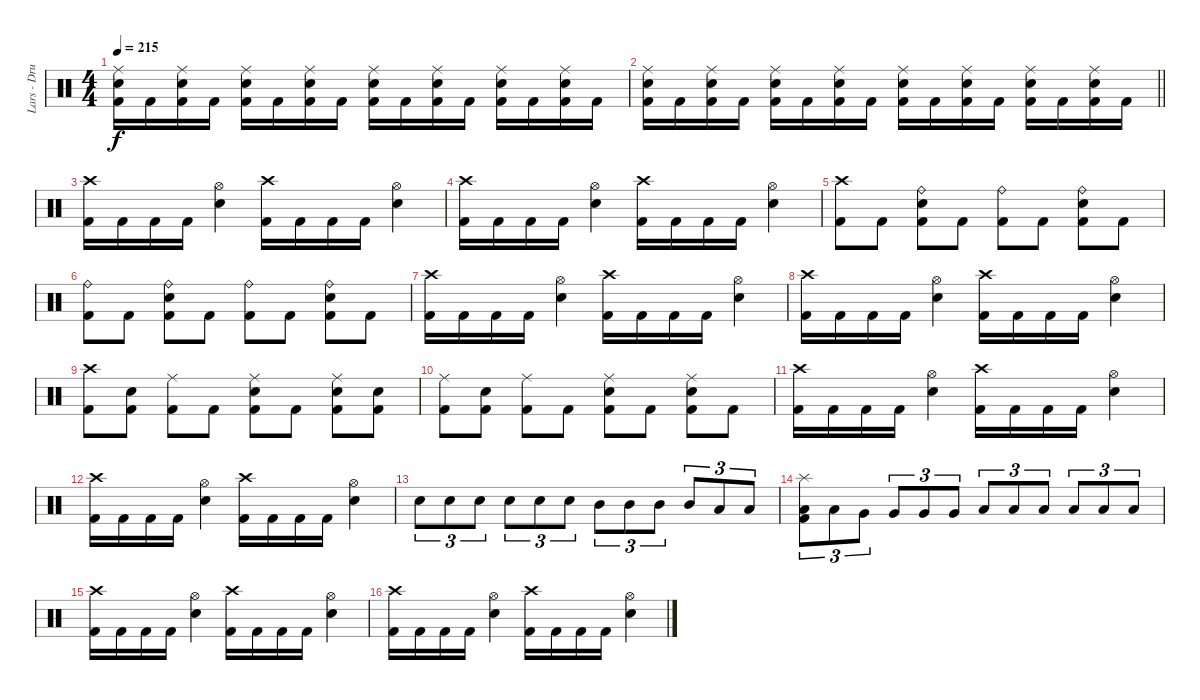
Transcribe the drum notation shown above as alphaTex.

\track ("Lars - Drums" "Lars - Dru") {instrument percussion}
\staff {score}
\articulation defaults
\ts (4 4)
\tempo 215
\clef neutral
\ks c
("Kick (hit) 2" "Electric Snare (hit)" "Ride (middle)").16{dy f} "Kick (hit) 2".16 ("Kick (hit) 2" "Electric Snare (hit)" "Ride (middle)").16 "Kick (hit) 2".16 ("Kick (hit) 2" "Electric Snare (hit)" "Ride (middle)").16 "Kick (hit) 2".16 ("Kick (hit) 2" "Electric Snare (hit)" "Ride (middle)").16 "Kick (hit) 2".16 ("Kick (hit) 2" "Electric Snare (hit)" "Ride (middle)").16 "Kick (hit) 2".16 ("Kick (hit) 2" "Electric Snare (hit)" "Ride (middle)").16 "Kick (hit) 2".16 ("Kick (hit) 2" "Electric Snare (hit)" "Ride (middle)").16 "Kick (hit) 2".16 ("Kick (hit) 2" "Electric Snare (hit)" "Ride (middle)").16 "Kick (hit) 2".16 |
\barLineRight lightlight
("Kick (hit) 2" "Electric Snare (hit)" "Ride (middle)").16 "Kick (hit) 2".16 ("Kick (hit) 2" "Electric Snare (hit)" "Ride (middle)").16 "Kick (hit) 2".16 ("Kick (hit) 2" "Electric Snare (hit)" "Ride (middle)").16 "Kick (hit) 2".16 ("Kick (hit) 2" "Electric Snare (hit)" "Ride (middle)").16 "Kick (hit) 2".16 ("Kick (hit) 2" "Electric Snare (hit)" "Ride (middle)").16 "Kick (hit) 2".16 ("Kick (hit) 2" "Electric Snare (hit)" "Ride (middle)").16 "Kick (hit) 2".16 ("Kick (hit) 2" "Electric Snare (hit)" "Ride (middle)").16 "Kick (hit) 2".16 ("Kick (hit) 2" "Electric Snare (hit)" "Ride (middle)").16 "Kick (hit) 2".16 |
\section ("" "")
("Kick (hit) 2" "Crash high (hit)").16 "Kick (hit) 2".16 "Kick (hit) 2".16 "Kick (hit) 2".16 ("Electric Snare (hit)" "Hi-Hat (open)").4 ("Kick (hit) 2" "Crash high (hit)").16 "Kick (hit) 2".16 "Kick (hit) 2".16 "Kick (hit) 2".16 ("Electric Snare (hit)" "Hi-Hat (open)").4 |
("Kick (hit) 2" "Crash high (hit)").16 "Kick (hit) 2".16 "Kick (hit) 2".16 "Kick (hit) 2".16 ("Electric Snare (hit)" "Hi-Hat (open)").4 ("Kick (hit) 2" "Crash high (hit)").16 "Kick (hit) 2".16 "Kick (hit) 2".16 "Kick (hit) 2".16 ("Electric Snare (hit)" "Hi-Hat (open)").4 |
("Kick (hit) 2" "Crash high (hit)").8 "Kick (hit) 2".8 ("Kick (hit) 2" "Electric Snare (hit)" "Ride (bell)").8 "Kick (hit) 2".8 ("Kick (hit) 2" "Ride (bell)").8 "Kick (hit) 2".8 ("Kick (hit) 2" "Electric Snare (hit)" "Ride (bell)").8 "Kick (hit) 2".8 |
("Kick (hit) 2" "Ride (bell)").8 "Kick (hit) 2".8 ("Kick (hit) 2" "Electric Snare (hit)" "Ride (bell)").8 "Kick (hit) 2".8 ("Kick (hit) 2" "Ride (bell)").8 "Kick (hit) 2".8 ("Kick (hit) 2" "Electric Snare (hit)" "Ride (bell)").8 "Kick (hit) 2".8 |
("Kick (hit) 2" "Crash high (hit)").16 "Kick (hit) 2".16 "Kick (hit) 2".16 "Kick (hit) 2".16 ("Electric Snare (hit)" "Hi-Hat (open)").4 ("Kick (hit) 2" "Crash high (hit)").16 "Kick (hit) 2".16 "Kick (hit) 2".16 "Kick (hit) 2".16 ("Electric Snare (hit)" "Hi-Hat (open)").4 |
("Kick (hit) 2" "Crash high (hit)").16 "Kick (hit) 2".16 "Kick (hit) 2".16 "Kick (hit) 2".16 ("Electric Snare (hit)" "Hi-Hat (open)").4 ("Kick (hit) 2" "Crash high (hit)").16 "Kick (hit) 2".16 "Kick (hit) 2".16 "Kick (hit) 2".16 ("Electric Snare (hit)" "Hi-Hat (open)").4 |
("Kick (hit) 2" "Crash high (hit)").8 ("Kick (hit) 2" "Electric Snare (hit)").8 ("Kick (hit) 2" "Ride (middle)").8 "Kick (hit) 2".8 ("Kick (hit) 2" "Electric Snare (hit)" "Ride (middle)").8 "Kick (hit) 2".8 ("Kick (hit) 2" "Electric Snare (hit)" "Ride (middle)").8 ("Kick (hit) 2" "Electric Snare (hit)").8 |
("Kick (hit) 2" "Ride (middle)").8 ("Kick (hit) 2" "Electric Snare (hit)").8 ("Kick (hit) 2" "Ride (middle)").8 "Kick (hit) 2".8 ("Kick (hit) 2" "Electric Snare (hit)" "Ride (middle)").8 "Kick (hit) 2".8 ("Kick (hit) 2" "Electric Snare (hit)" "Ride (middle)").8 "Kick (hit) 2".8 |
("Kick (hit) 2" "Crash high (hit)").16 "Kick (hit) 2".16 "Kick (hit) 2".16 "Kick (hit) 2".16 ("Electric Snare (hit)" "Hi-Hat (open)").4 ("Kick (hit) 2" "Crash high (hit)").16 "Kick (hit) 2".16 "Kick (hit) 2".16 "Kick (hit) 2".16 ("Electric Snare (hit)" "Hi-Hat (open)").4 |
("Kick (hit) 2" "Crash high (hit)").16 "Kick (hit) 2".16 "Kick (hit) 2".16 "Kick (hit) 2".16 ("Electric Snare (hit)" "Hi-Hat (open)").4 ("Kick (hit) 2" "Crash high (hit)").16 "Kick (hit) 2".16 "Kick (hit) 2".16 "Kick (hit) 2".16 ("Electric Snare (hit)" "Hi-Hat (open)").4 |
"Electric Snare (hit)".8{tu (3 2)} "Electric Snare (hit)".8{tu (3 2)} "Electric Snare (hit)".8{tu (3 2)} "Electric Snare (hit)".8{tu (3 2)} "Electric Snare (hit)".8{tu (3 2)} "Electric Snare (hit)".8{tu (3 2)} "Mid Tom (hit)".8{tu (3 2)} "Mid Tom (hit)".8{tu (3 2)} "Mid Tom (hit)".8{tu (3 2)} "Mid Tom (hit)".8{tu (3 2)} "Low Tom (hit)".8{tu (3 2)} "Low Tom (hit)".8{tu (3 2)} |
("Low Tom (hit)" "Kick (hit) 2" "Splash (hit)").8{tu (3 2)} "Low Tom (hit)".8{tu (3 2)} "Very Low Tom (hit)".8{tu (3 2)} "Very Low Tom (hit)".8{tu (3 2)} "Very Low Tom (hit)".8{tu (3 2)} "Very Low Tom (hit)".8{tu (3 2)} "Low Floor Tom (hit)".8{tu (3 2)} "Low Floor Tom (hit)".8{tu (3 2)} "Low Floor Tom (hit)".8{tu (3 2)} "Low Floor Tom (hit)".8{tu (3 2)} "Low Floor Tom (hit)".8{tu (3 2)} "Low Floor Tom (hit)".8{tu (3 2)} |
("Kick (hit) 2" "Crash high (hit)").16 "Kick (hit) 2".16 "Kick (hit) 2".16 "Kick (hit) 2".16 ("Electric Snare (hit)" "Hi-Hat (open)").4 ("Kick (hit) 2" "Crash high (hit)").16 "Kick (hit) 2".16 "Kick (hit) 2".16 "Kick (hit) 2".16 ("Electric Snare (hit)" "Hi-Hat (open)").4 |
("Kick (hit) 2" "Crash high (hit)").16 "Kick (hit) 2".16 "Kick (hit) 2".16 "Kick (hit) 2".16 ("Electric Snare (hit)" "Hi-Hat (open)").4 ("Kick (hit) 2" "Crash high (hit)").16 "Kick (hit) 2".16 "Kick (hit) 2".16 "Kick (hit) 2".16 ("Electric Snare (hit)" "Hi-Hat (open)").4
